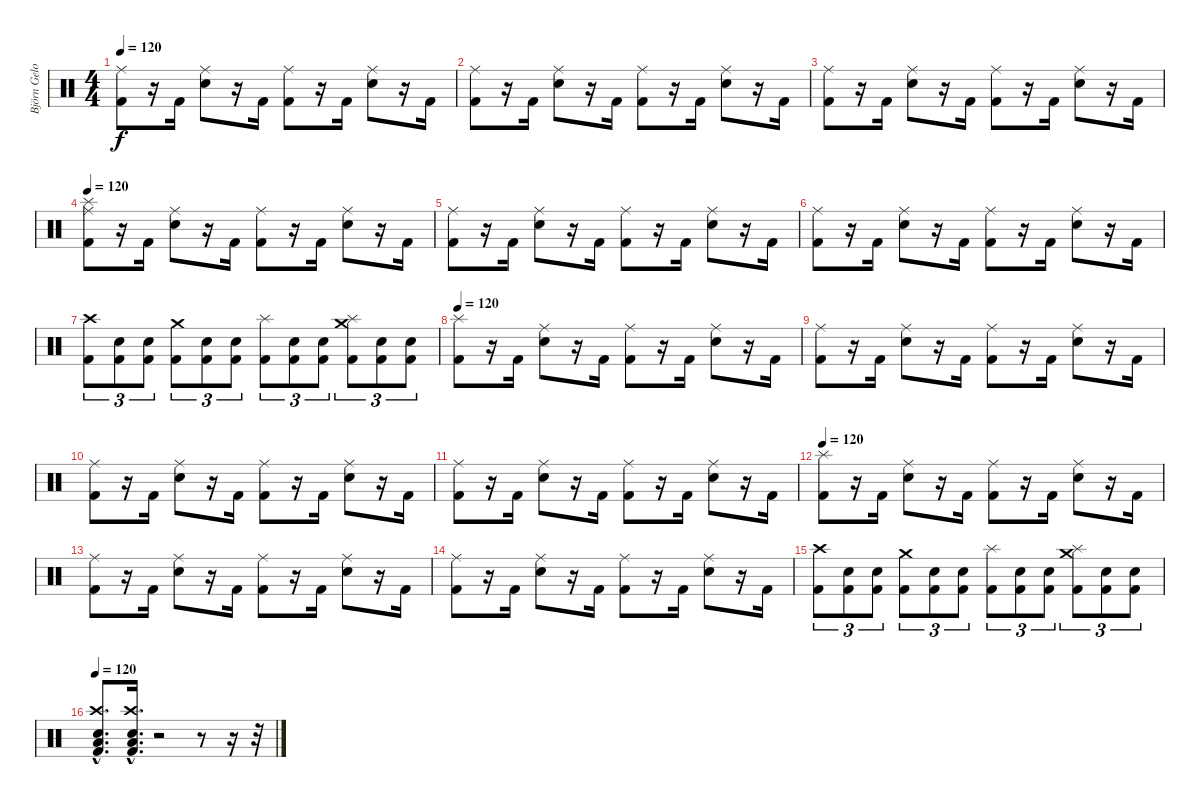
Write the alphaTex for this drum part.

\track ("Björn Gelotte" "Björn Gelo") {instrument percussion}
\staff {score}
\articulation defaults
\ts (4 4)
\tempo 120
\clef neutral
\ks c
("Ride (middle)" "Kick (hit) 2").8{dy f} r.16 "Kick (hit) 2".16 ("Ride (middle)" "Electric Snare (hit)").8 r.16 "Kick (hit) 2".16 ("Ride (middle)" "Kick (hit) 2").8 r.16 "Kick (hit) 2".16 ("Ride (middle)" "Electric Snare (hit)").8 r.16 "Kick (hit) 2".16 |
("Ride (middle)" "Kick (hit) 2").8 r.16 "Kick (hit) 2".16 ("Ride (middle)" "Electric Snare (hit)").8 r.16 "Kick (hit) 2".16 ("Ride (middle)" "Kick (hit) 2").8 r.16 "Kick (hit) 2".16 ("Ride (middle)" "Electric Snare (hit)").8 r.16 "Kick (hit) 2".16 |
("Ride (middle)" "Kick (hit) 2").8 r.16 "Kick (hit) 2".16 ("Ride (middle)" "Electric Snare (hit)").8 r.16 "Kick (hit) 2".16 ("Ride (middle)" "Kick (hit) 2").8 r.16 "Kick (hit) 2".16 ("Ride (middle)" "Electric Snare (hit)").8 r.16 "Kick (hit) 2".16 |
\tempo 115
\tempo 120
("Ride (middle)" "Splash (hit)" "Kick (hit) 2").8 r.16 "Kick (hit) 2".16 ("Ride (middle)" "Electric Snare (hit)").8 r.16 "Kick (hit) 2".16 ("Ride (middle)" "Kick (hit) 2").8 r.16 "Kick (hit) 2".16 ("Ride (middle)" "Electric Snare (hit)").8 r.16 "Kick (hit) 2".16 |
("Ride (middle)" "Kick (hit) 2").8 r.16 "Kick (hit) 2".16 ("Ride (middle)" "Electric Snare (hit)").8 r.16 "Kick (hit) 2".16 ("Ride (middle)" "Kick (hit) 2").8 r.16 "Kick (hit) 2".16 ("Ride (middle)" "Electric Snare (hit)").8 r.16 "Kick (hit) 2".16 |
("Ride (middle)" "Kick (hit) 2").8 r.16 "Kick (hit) 2".16 ("Ride (middle)" "Electric Snare (hit)").8 r.16 "Kick (hit) 2".16 ("Ride (middle)" "Kick (hit) 2").8 r.16 "Kick (hit) 2".16 ("Ride (middle)" "Electric Snare (hit)").8 r.16 "Kick (hit) 2".16 |
("Crash high (hit)" "Kick (hit) 2").8{tu (3 2)} ("Electric Snare (hit)" "Kick (hit) 2").8{tu (3 2)} ("Electric Snare (hit)" "Kick (hit) 2").8{tu (3 2)} ("Crash medium (hit)" "Kick (hit) 2").8{tu (3 2)} ("Electric Snare (hit)" "Kick (hit) 2").8{tu (3 2)} ("Electric Snare (hit)" "Kick (hit) 2").8{tu (3 2)} ("Splash (hit)" "Kick (hit) 2").8{tu (3 2)} ("Electric Snare (hit)" "Kick (hit) 2").8{tu (3 2)} ("Electric Snare (hit)" "Kick (hit) 2").8{tu (3 2)} ("Splash (hit)" "Crash medium (hit)" "Kick (hit) 2").8{tu (3 2)} ("Electric Snare (hit)" "Kick (hit) 2").8{tu (3 2)} ("Electric Snare (hit)" "Kick (hit) 2").8{tu (3 2)} |
\tempo 115
\tempo 120
("Splash (hit)" "Kick (hit) 2").8 r.16 "Kick (hit) 2".16 ("Ride (middle)" "Electric Snare (hit)").8 r.16 "Kick (hit) 2".16 ("Ride (middle)" "Kick (hit) 2").8 r.16 "Kick (hit) 2".16 ("Ride (middle)" "Electric Snare (hit)").8 r.16 "Kick (hit) 2".16 |
("Ride (middle)" "Kick (hit) 2").8 r.16 "Kick (hit) 2".16 ("Ride (middle)" "Electric Snare (hit)").8 r.16 "Kick (hit) 2".16 ("Ride (middle)" "Kick (hit) 2").8 r.16 "Kick (hit) 2".16 ("Ride (middle)" "Electric Snare (hit)").8 r.16 "Kick (hit) 2".16 |
("Ride (middle)" "Kick (hit) 2").8 r.16 "Kick (hit) 2".16 ("Ride (middle)" "Electric Snare (hit)").8 r.16 "Kick (hit) 2".16 ("Ride (middle)" "Kick (hit) 2").8 r.16 "Kick (hit) 2".16 ("Ride (middle)" "Electric Snare (hit)").8 r.16 "Kick (hit) 2".16 |
("Ride (middle)" "Kick (hit) 2").8 r.16 "Kick (hit) 2".16 ("Ride (middle)" "Electric Snare (hit)").8 r.16 "Kick (hit) 2".16 ("Ride (middle)" "Kick (hit) 2").8 r.16 "Kick (hit) 2".16 ("Ride (middle)" "Electric Snare (hit)").8 r.16 "Kick (hit) 2".16 |
\tempo 115
\tempo 120
("Splash (hit)" "Kick (hit) 2").8 r.16 "Kick (hit) 2".16 ("Ride (middle)" "Electric Snare (hit)").8 r.16 "Kick (hit) 2".16 ("Ride (middle)" "Kick (hit) 2").8 r.16 "Kick (hit) 2".16 ("Ride (middle)" "Electric Snare (hit)").8 r.16 "Kick (hit) 2".16 |
("Ride (middle)" "Kick (hit) 2").8 r.16 "Kick (hit) 2".16 ("Ride (middle)" "Electric Snare (hit)").8 r.16 "Kick (hit) 2".16 ("Ride (middle)" "Kick (hit) 2").8 r.16 "Kick (hit) 2".16 ("Ride (middle)" "Electric Snare (hit)").8 r.16 "Kick (hit) 2".16 |
("Ride (middle)" "Kick (hit) 2").8 r.16 "Kick (hit) 2".16 ("Ride (middle)" "Electric Snare (hit)").8 r.16 "Kick (hit) 2".16 ("Ride (middle)" "Kick (hit) 2").8 r.16 "Kick (hit) 2".16 ("Ride (middle)" "Electric Snare (hit)").8 r.16 "Kick (hit) 2".16 |
("Crash high (hit)" "Kick (hit) 2").8{tu (3 2)} ("Electric Snare (hit)" "Kick (hit) 2").8{tu (3 2)} ("Electric Snare (hit)" "Kick (hit) 2").8{tu (3 2)} ("Crash medium (hit)" "Kick (hit) 2").8{tu (3 2)} ("Electric Snare (hit)" "Kick (hit) 2").8{tu (3 2)} ("Electric Snare (hit)" "Kick (hit) 2").8{tu (3 2)} ("Splash (hit)" "Kick (hit) 2").8{tu (3 2)} ("Electric Snare (hit)" "Kick (hit) 2").8{tu (3 2)} ("Electric Snare (hit)" "Kick (hit) 2").8{tu (3 2)} ("Splash (hit)" "Crash medium (hit)" "Kick (hit) 2").8{tu (3 2)} ("Electric Snare (hit)" "Kick (hit) 2").8{tu (3 2)} ("Electric Snare (hit)" "Kick (hit) 2").8{tu (3 2)} |
\tempo 120
("Crash high (hit)"{hac} "Electric Snare (hit)"{hac} "Low Floor Tom (hit)"{hac} "Kick (hit) 2"{hac}).8{d} ("Crash high (hit)"{hac} "Electric Snare (hit)"{hac} "Low Floor Tom (hit)"{hac} "Kick (hit) 2"{hac}).16{d} r.2 r.8 r.16 r.32
